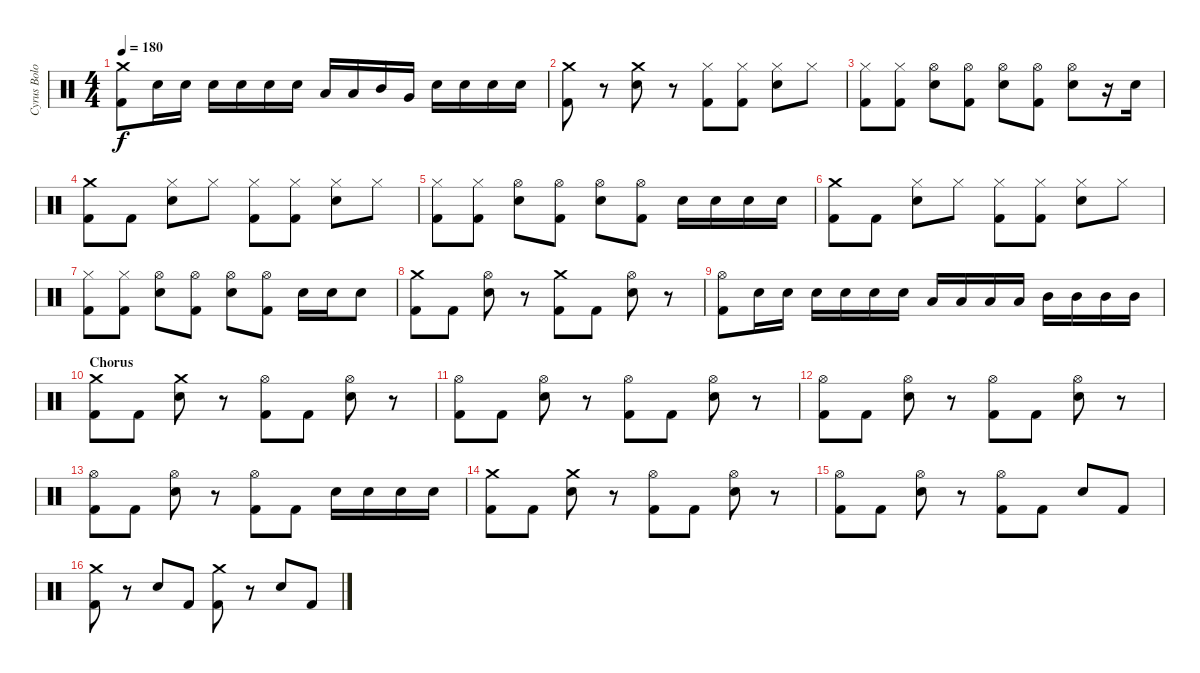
\track ("Cyrus Bolooki - Drums" "Cyrus Bolo") {instrument percussion}
\staff {score}
\articulation defaults
\ts (4 4)
\tempo 180
\clef neutral
\ks c
("Crash medium (hit)" "Kick (hit) 2").8{dy f} "Electric Snare (hit)".16 "Electric Snare (hit)".16 "Electric Snare (hit)".16 "Electric Snare (hit)".16 "Electric Snare (hit)".16 "Electric Snare (hit)".16 "Low Tom (hit)".16 "Low Tom (hit)".16 "Mid Tom (hit)".16 "Very Low Tom (hit)".16 "Electric Snare (hit)".16 "Electric Snare (hit)".16 "Electric Snare (hit)".16 "Electric Snare (hit)".16 |
("Crash medium (hit)" "Kick (hit) 2").8 r.8 ("Crash medium (hit)" "Electric Snare (hit)").8 r.8 ("Hi-Hat (closed)" "Kick (hit) 2").8 ("Hi-Hat (closed)" "Kick (hit) 2").8 ("Hi-Hat (closed)" "Electric Snare (hit)").8 "Hi-Hat (closed)".8 |
("Hi-Hat (closed)" "Kick (hit) 2").8 ("Hi-Hat (closed)" "Kick (hit) 2").8 ("Hi-Hat (open)" "Electric Snare (hit)").8 ("Hi-Hat (open)" "Kick (hit) 2").8 ("Hi-Hat (open)" "Electric Snare (hit)").8 ("Hi-Hat (open)" "Kick (hit) 2").8 ("Hi-Hat (open)" "Electric Snare (hit)").8 r.16 "Electric Snare (hit)".16 |
("Crash medium (hit)" "Kick (hit) 2").8 "Kick (hit) 2".8 ("Hi-Hat (closed)" "Electric Snare (hit)").8 "Hi-Hat (closed)".8 ("Hi-Hat (closed)" "Kick (hit) 2").8 ("Hi-Hat (closed)" "Kick (hit) 2").8 ("Hi-Hat (closed)" "Electric Snare (hit)").8 "Hi-Hat (closed)".8 |
("Hi-Hat (closed)" "Kick (hit) 2").8 ("Hi-Hat (closed)" "Kick (hit) 2").8 ("Hi-Hat (open)" "Electric Snare (hit)").8 ("Hi-Hat (open)" "Kick (hit) 2").8 ("Hi-Hat (open)" "Electric Snare (hit)").8 ("Hi-Hat (open)" "Kick (hit) 2").8 "Electric Snare (hit)".16 "Electric Snare (hit)".16 "Electric Snare (hit)".16 "Electric Snare (hit)".16 |
("Crash medium (hit)" "Kick (hit) 2").8 "Kick (hit) 2".8 ("Hi-Hat (closed)" "Electric Snare (hit)").8 "Hi-Hat (closed)".8 ("Hi-Hat (closed)" "Kick (hit) 2").8 ("Hi-Hat (closed)" "Kick (hit) 2").8 ("Hi-Hat (closed)" "Electric Snare (hit)").8 "Hi-Hat (closed)".8 |
("Hi-Hat (closed)" "Kick (hit) 2").8 ("Hi-Hat (closed)" "Kick (hit) 2").8 ("Hi-Hat (open)" "Electric Snare (hit)").8 ("Hi-Hat (open)" "Kick (hit) 2").8 ("Hi-Hat (open)" "Electric Snare (hit)").8 ("Hi-Hat (open)" "Kick (hit) 2").8 "Electric Snare (hit)".16 "Electric Snare (hit)".16 "Electric Snare (hit)".8 |
("Crash medium (hit)" "Kick (hit) 2").8 "Kick (hit) 2".8 ("Hi-Hat (open)" "Electric Snare (hit)").8 r.8 ("Crash medium (hit)" "Kick (hit) 2").8 "Kick (hit) 2".8 ("Hi-Hat (open)" "Electric Snare (hit)").8 r.8 |
("Hi-Hat (open)" "Kick (hit) 2").8 "Electric Snare (hit)".16 "Electric Snare (hit)".16 "Electric Snare (hit)".16 "Electric Snare (hit)".16 "Electric Snare (hit)".16 "Electric Snare (hit)".16 "Low Tom (hit)".16 "Low Tom (hit)".16 "Low Tom (hit)".16 "Low Tom (hit)".16 "Mid Tom (hit)".16 "Mid Tom (hit)".16 "Mid Tom (hit)".16 "Mid Tom (hit)".16 |
\section ("" "Chorus")
("Crash medium (hit)" "Kick (hit) 2").8 "Kick (hit) 2".8 ("Crash medium (hit)" "Electric Snare (hit)").8 r.8 ("Hi-Hat (open)" "Kick (hit) 2").8 "Kick (hit) 2".8 ("Hi-Hat (open)" "Electric Snare (hit)").8 r.8 |
("Hi-Hat (open)" "Kick (hit) 2").8 "Kick (hit) 2".8 ("Hi-Hat (open)" "Electric Snare (hit)").8 r.8 ("Hi-Hat (open)" "Kick (hit) 2").8 "Kick (hit) 2".8 ("Hi-Hat (open)" "Electric Snare (hit)").8 r.8 |
("Hi-Hat (open)" "Kick (hit) 2").8 "Kick (hit) 2".8 ("Hi-Hat (open)" "Electric Snare (hit)").8 r.8 ("Hi-Hat (open)" "Kick (hit) 2").8 "Kick (hit) 2".8 ("Hi-Hat (open)" "Electric Snare (hit)").8 r.8 |
("Hi-Hat (open)" "Kick (hit) 2").8 "Kick (hit) 2".8 ("Hi-Hat (open)" "Electric Snare (hit)").8 r.8 ("Hi-Hat (open)" "Kick (hit) 2").8 "Kick (hit) 2".8 "Electric Snare (hit)".16 "Electric Snare (hit)".16 "Electric Snare (hit)".16 "Electric Snare (hit)".16 |
("Crash medium (hit)" "Kick (hit) 2").8 "Kick (hit) 2".8 ("Crash medium (hit)" "Electric Snare (hit)").8 r.8 ("Hi-Hat (open)" "Kick (hit) 2").8 "Kick (hit) 2".8 ("Hi-Hat (open)" "Electric Snare (hit)").8 r.8 |
("Hi-Hat (open)" "Kick (hit) 2").8 "Kick (hit) 2".8 ("Hi-Hat (open)" "Electric Snare (hit)").8 r.8 ("Hi-Hat (open)" "Kick (hit) 2").8 "Kick (hit) 2".8 "Electric Snare (hit)".8 "Kick (hit) 2".8 |
("Crash medium (hit)" "Kick (hit) 2").8 r.8 "Electric Snare (hit)".8 "Kick (hit) 2".8 ("Crash medium (hit)" "Kick (hit) 2").8 r.8 "Electric Snare (hit)".8 "Kick (hit) 2".8
